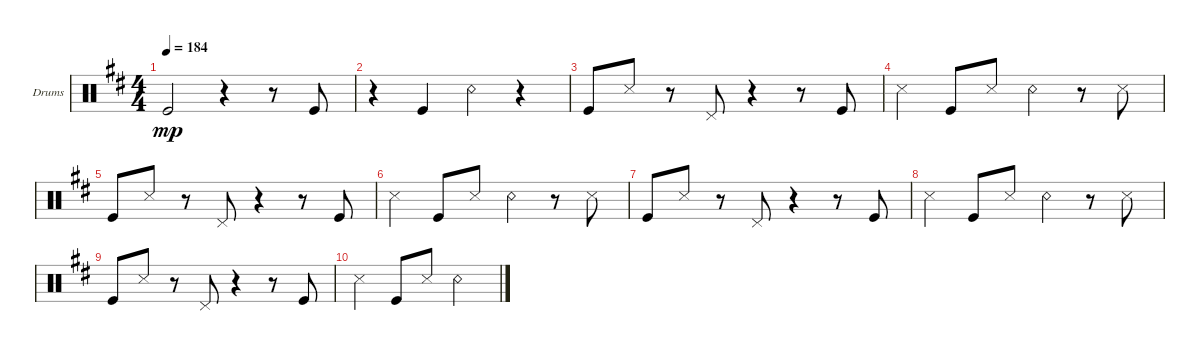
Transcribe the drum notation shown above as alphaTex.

\defaultSystemsLayout 4
\bracketExtendMode groupsimilarinstruments
\firstSystemTrackNameOrientation horizontal
\otherSystemsTrackNameOrientation horizontal
\track ("Drums" "Drums") {instrument percussion}
\staff {score}
\articulation defaults
\ts (4 4)
\tempo 184
\clef neutral
\ks d "Kick (hit)".2{dy mp}
r.4 r.8 "Kick (hit)".8 |
r.4 "Kick (hit)".4 "Snare (rim shot)".4 r.4 |
"Kick (hit)".8 "Snare (side stick) 3".8 r.8 "Pedal Hi-Hat (hit)".8 r.4 r.8 "Kick (hit)".8 |
"Snare (side stick) 3".4 "Kick (hit)".8 "Snare (side stick) 3".8 "Snare (rim shot)".4 r.8 "Snare (side stick) 3".8 |
"Kick (hit)".8 "Snare (side stick) 3".8 r.8 "Pedal Hi-Hat (hit)".8 r.4 r.8 "Kick (hit)".8 |
"Snare (side stick) 3".4 "Kick (hit)".8 "Snare (side stick) 3".8 "Snare (rim shot)".4 r.8 "Snare (side stick) 3".8 |
"Kick (hit)".8 "Snare (side stick) 3".8 r.8 "Pedal Hi-Hat (hit)".8 r.4 r.8 "Kick (hit)".8 |
"Snare (side stick) 3".4 "Kick (hit)".8 "Snare (side stick) 3".8 "Snare (rim shot)".4 r.8 "Snare (side stick) 3".8 |
"Kick (hit)".8 "Snare (side stick) 3".8 r.8 "Pedal Hi-Hat (hit)".8 r.4 r.8 "Kick (hit)".8 |
"Snare (side stick) 3".4 "Kick (hit)".8 "Snare (side stick) 3".8 "Snare (rim shot)".2
